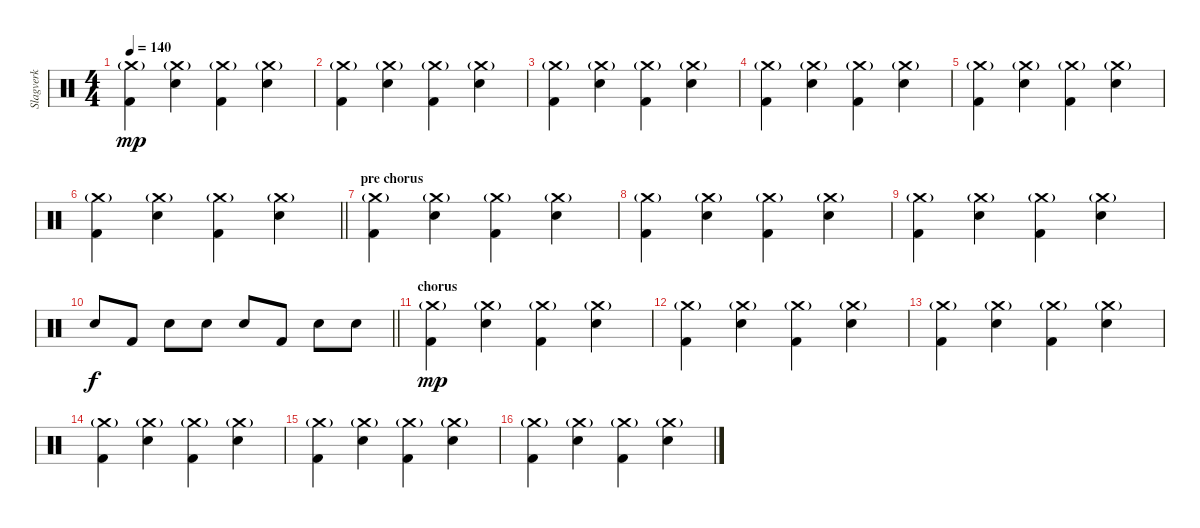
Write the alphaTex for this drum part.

\track ("Slagverk" "Slagverk") {instrument percussion}
\staff {score}
\articulation defaults
\ts (4 4)
\tempo 140
\clef neutral
\ks c
("Kick (hit) 2" "Crash medium (hit)"{g}).4{dy mp} ("Snare (hit) 2" "Crash medium (hit)"{g}).4 ("Kick (hit) 2" "Crash medium (hit)"{g}).4 ("Snare (hit) 2" "Crash medium (hit)"{g}).4 |
("Kick (hit) 2" "Crash medium (hit)"{g}).4 ("Snare (hit) 2" "Crash medium (hit)"{g}).4 ("Kick (hit) 2" "Crash medium (hit)"{g}).4 ("Snare (hit) 2" "Crash medium (hit)"{g}).4 |
("Kick (hit) 2" "Crash medium (hit)"{g}).4 ("Snare (hit) 2" "Crash medium (hit)"{g}).4 ("Kick (hit) 2" "Crash medium (hit)"{g}).4 ("Snare (hit) 2" "Crash medium (hit)"{g}).4 |
("Kick (hit) 2" "Crash medium (hit)"{g}).4 ("Snare (hit) 2" "Crash medium (hit)"{g}).4 ("Kick (hit) 2" "Crash medium (hit)"{g}).4 ("Snare (hit) 2" "Crash medium (hit)"{g}).4 |
("Kick (hit) 2" "Crash medium (hit)"{g}).4 ("Snare (hit) 2" "Crash medium (hit)"{g}).4 ("Kick (hit) 2" "Crash medium (hit)"{g}).4 ("Snare (hit) 2" "Crash medium (hit)"{g}).4 |
\barLineRight lightlight
("Kick (hit) 2" "Crash medium (hit)"{g}).4 ("Snare (hit) 2" "Crash medium (hit)"{g}).4 ("Kick (hit) 2" "Crash medium (hit)"{g}).4 ("Snare (hit) 2" "Crash medium (hit)"{g}).4 |
\section ("" "pre chorus")
("Kick (hit) 2" "Crash medium (hit)"{g}).4 ("Snare (hit) 2" "Crash medium (hit)"{g}).4 ("Kick (hit) 2" "Crash medium (hit)"{g}).4 ("Snare (hit) 2" "Crash medium (hit)"{g}).4 |
("Kick (hit) 2" "Crash medium (hit)"{g}).4 ("Snare (hit) 2" "Crash medium (hit)"{g}).4 ("Kick (hit) 2" "Crash medium (hit)"{g}).4 ("Snare (hit) 2" "Crash medium (hit)"{g}).4 |
("Kick (hit) 2" "Crash medium (hit)"{g}).4 ("Snare (hit) 2" "Crash medium (hit)"{g}).4 ("Kick (hit) 2" "Crash medium (hit)"{g}).4 ("Snare (hit) 2" "Crash medium (hit)"{g}).4 |
\barLineRight lightlight "Snare (hit) 2".8{dy f} "Kick (hit) 2".8 "Snare (hit) 2".8 "Snare (hit) 2".8 "Snare (hit) 2".8 "Kick (hit) 2".8 "Snare (hit) 2".8 "Snare (hit) 2".8
|
\section ("" "chorus")
("Kick (hit) 2" "Crash medium (hit)"{g}).4{dy mp} ("Snare (hit) 2" "Crash medium (hit)"{g}).4 ("Kick (hit) 2" "Crash medium (hit)"{g}).4 ("Snare (hit) 2" "Crash medium (hit)"{g}).4 |
("Kick (hit) 2" "Crash medium (hit)"{g}).4 ("Snare (hit) 2" "Crash medium (hit)"{g}).4 ("Kick (hit) 2" "Crash medium (hit)"{g}).4 ("Snare (hit) 2" "Crash medium (hit)"{g}).4 |
("Kick (hit) 2" "Crash medium (hit)"{g}).4 ("Snare (hit) 2" "Crash medium (hit)"{g}).4 ("Kick (hit) 2" "Crash medium (hit)"{g}).4 ("Snare (hit) 2" "Crash medium (hit)"{g}).4 |
("Kick (hit) 2" "Crash medium (hit)"{g}).4 ("Snare (hit) 2" "Crash medium (hit)"{g}).4 ("Kick (hit) 2" "Crash medium (hit)"{g}).4 ("Snare (hit) 2" "Crash medium (hit)"{g}).4 |
("Kick (hit) 2" "Crash medium (hit)"{g}).4 ("Snare (hit) 2" "Crash medium (hit)"{g}).4 ("Kick (hit) 2" "Crash medium (hit)"{g}).4 ("Snare (hit) 2" "Crash medium (hit)"{g}).4 |
("Kick (hit) 2" "Crash medium (hit)"{g}).4 ("Snare (hit) 2" "Crash medium (hit)"{g}).4 ("Kick (hit) 2" "Crash medium (hit)"{g}).4 ("Snare (hit) 2" "Crash medium (hit)"{g}).4
